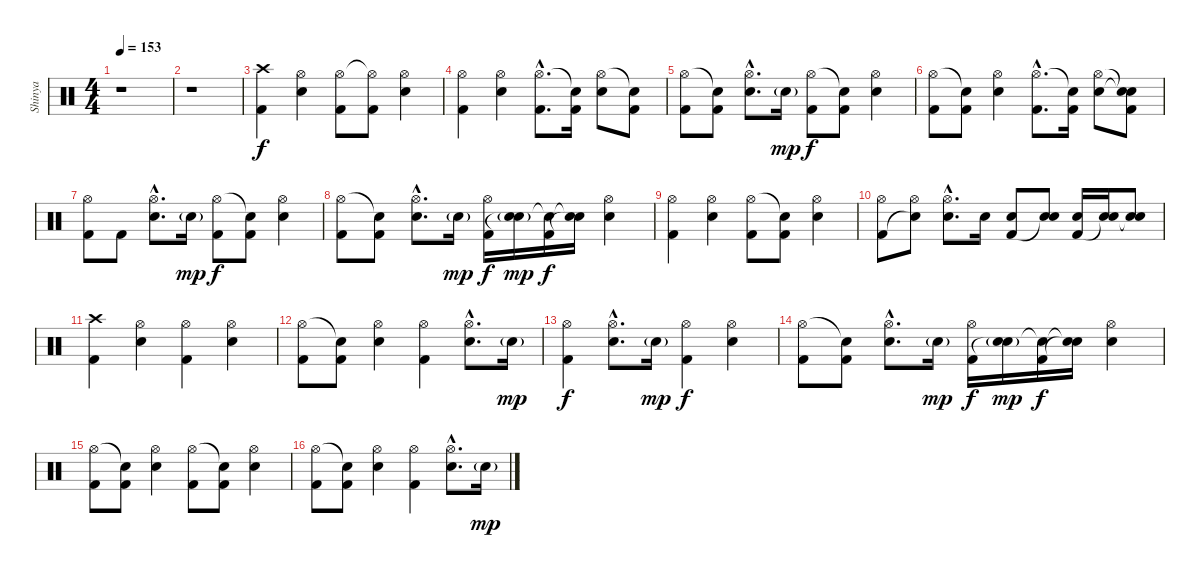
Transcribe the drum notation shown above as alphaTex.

\track ("Shinya" "Shinya") {instrument percussion}
\staff {score}
\articulation defaults
\ts (4 4)
\tempo 153
\clef neutral
\ks c
r.1{dy f} |
r.1 |
("Crash high (hit)" "Kick (hit) 2").4 ("Hi-Hat (open)" "Electric Snare (hit)").4 ("Hi-Hat (open)" "Kick (hit) 2").8 ("Hi-Hat (open)"{t} "Kick (hit) 2").8 ("Hi-Hat (open)" "Electric Snare (hit)").4 |
("Hi-Hat (open)" "Kick (hit) 2").4 ("Hi-Hat (open)" "Electric Snare (hit)").4 ("Hi-Hat (open)"{hac} "Kick (hit) 2"{hac}).8{d} ("Snare (hit)"{t} "Kick (hit) 2").16 ("Hi-Hat (open)" "Electric Snare (hit)").8 ("Snare (hit)"{t} "Kick (hit) 2").8 |
("Hi-Hat (open)" "Kick (hit) 2").8 ("Snare (hit)"{t} "Kick (hit) 2").8 ("Hi-Hat (open)"{hac} "Electric Snare (hit)"{hac}).8{d} "Electric Snare (hit)"{g}.16{dy mp} ("Hi-Hat (open)" "Kick (hit) 2").8{dy f} ("Snare (hit)"{t} "Kick (hit) 2").8 ("Hi-Hat (open)" "Electric Snare (hit)").4 |
("Hi-Hat (open)" "Kick (hit) 2").8 ("Snare (hit)"{t} "Kick (hit) 2").8 ("Hi-Hat (open)" "Electric Snare (hit)").4 ("Hi-Hat (open)"{hac} "Kick (hit) 2"{hac}).8{d} ("Snare (hit)"{t} "Kick (hit) 2").16 ("Hi-Hat (open)" "Electric Snare (hit)").8 ("Snare (hit)"{t} "Snare (hit)"{t} "Kick (hit) 2").8 |
("Hi-Hat (open)" "Kick (hit) 2").8 "Kick (hit) 2".8 ("Hi-Hat (open)"{hac} "Electric Snare (hit)"{hac}).8{d} "Electric Snare (hit)"{g}.16{dy mp} ("Hi-Hat (open)" "Kick (hit) 2").8{dy f} ("Snare (hit)"{t} "Kick (hit) 2").8 ("Hi-Hat (open)" "Electric Snare (hit)").4 |
("Hi-Hat (open)" "Kick (hit) 2").8 ("Snare (hit)"{t} "Kick (hit) 2").8 ("Hi-Hat (open)"{hac} "Electric Snare (hit)"{hac}).8{d} "Electric Snare (hit)"{g}.16{dy mp} ("Hi-Hat (open)" "Kick (hit) 2").16{dy f} ("Electric Snare (hit)"{g} "Snare (hit)"{t}).16{dy mp} ("Snare (hit)"{t} "Kick (hit) 2").16{dy f} ("Snare (hit)"{t} "Snare (hit)"{t}).16 ("Hi-Hat (open)" "Electric Snare (hit)").4 |
("Hi-Hat (open)" "Kick (hit) 2").4 ("Hi-Hat (open)" "Electric Snare (hit)").4 ("Hi-Hat (open)" "Kick (hit) 2").8 ("Snare (hit)"{t} "Kick (hit) 2").8 ("Hi-Hat (open)" "Electric Snare (hit)").4 |
("Hi-Hat (open)" "Kick (hit) 2").8 ("Hi-Hat (open)" "Snare (hit)"{t}).8 ("Hi-Hat (open)"{hac} "Electric Snare (hit)"{hac}).8{d} "Electric Snare (hit)".16 ("Kick (hit) 2" "Electric Snare (hit)").8 ("Snare (hit)"{t} "Electric Snare (hit)").8 ("Electric Snare (hit)" "Kick (hit) 2").16 ("Electric Snare (hit)" "Snare (hit)"{t}).16 ("Electric Snare (hit)" "Snare (hit)"{t}).8 |
("Crash high (hit)" "Kick (hit) 2").4 ("Hi-Hat (open)" "Electric Snare (hit)").4 ("Hi-Hat (open)" "Kick (hit) 2").4 ("Hi-Hat (open)" "Electric Snare (hit)").4 |
("Hi-Hat (open)" "Kick (hit) 2").8 ("Snare (hit)"{t} "Kick (hit) 2").8 ("Hi-Hat (open)" "Electric Snare (hit)").4 ("Hi-Hat (open)" "Kick (hit) 2").4 ("Hi-Hat (open)"{hac} "Electric Snare (hit)"{hac}).8{d} "Electric Snare (hit)"{g}.16{dy mp} |
("Hi-Hat (open)" "Kick (hit) 2").4{dy f} ("Hi-Hat (open)"{hac} "Electric Snare (hit)"{hac}).8{d} "Electric Snare (hit)"{g}.16{dy mp} ("Hi-Hat (open)" "Kick (hit) 2").4{dy f} ("Hi-Hat (open)" "Electric Snare (hit)").4 |
("Hi-Hat (open)" "Kick (hit) 2").8 ("Snare (hit)"{t} "Kick (hit) 2").8 ("Hi-Hat (open)"{hac} "Electric Snare (hit)"{hac}).8{d} "Electric Snare (hit)"{g}.16{dy mp} ("Hi-Hat (open)" "Kick (hit) 2").16{dy f} ("Electric Snare (hit)"{g} "Snare (hit)"{t}).16{dy mp} ("Snare (hit)"{t} "Kick (hit) 2").16{dy f} ("Snare (hit)"{t} "Snare (hit)"{t}).16 ("Hi-Hat (open)" "Electric Snare (hit)").4 |
("Hi-Hat (open)" "Kick (hit) 2").8 ("Snare (hit)"{t} "Kick (hit) 2").8 ("Hi-Hat (open)" "Electric Snare (hit)").4 ("Hi-Hat (open)" "Kick (hit) 2").8 ("Snare (hit)"{t} "Kick (hit) 2").8 ("Hi-Hat (open)" "Electric Snare (hit)").4 |
("Hi-Hat (open)" "Kick (hit) 2").8 ("Snare (hit)"{t} "Kick (hit) 2").8 ("Hi-Hat (open)" "Electric Snare (hit)").4 ("Hi-Hat (open)" "Kick (hit) 2").4 ("Hi-Hat (open)"{hac} "Electric Snare (hit)"{hac}).8{d} "Electric Snare (hit)"{g}.16{dy mp}
